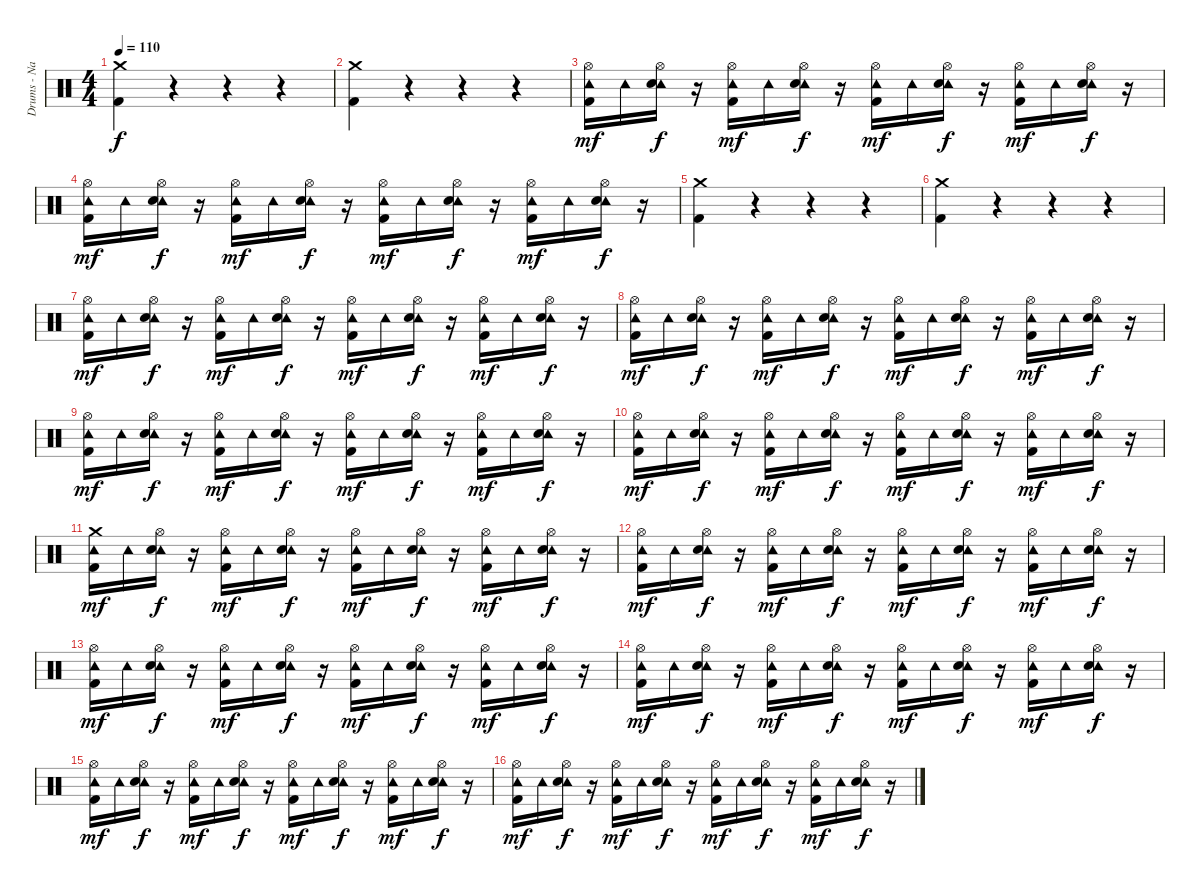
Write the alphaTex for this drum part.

\track ("Drums - Nathan" "Drums - Na") {instrument percussion}
\staff {score}
\articulation defaults
\ts (4 4)
\tempo 110
\clef neutral
\ks c
("Crash medium (hit)" "Kick (hit) 2").4{dy f} r.4 r.4 r.4 |
("Crash medium (hit)" "Kick (hit) 2").4 r.4 r.4 r.4 |
("Hi-Hat (open)" "Tambourine (hit)" "Kick (hit) 2").16{dy mf} "Tambourine (hit)".16 ("Hi-Hat (open)" "Tambourine (hit)" "Electric Snare (hit)").16{dy f} r.16 ("Hi-Hat (open)" "Tambourine (hit)" "Kick (hit) 2").16{dy mf} "Tambourine (hit)".16 ("Hi-Hat (open)" "Tambourine (hit)" "Electric Snare (hit)").16{dy f} r.16 ("Hi-Hat (open)" "Tambourine (hit)" "Kick (hit) 2").16{dy mf} "Tambourine (hit)".16 ("Hi-Hat (open)" "Tambourine (hit)" "Electric Snare (hit)").16{dy f} r.16 ("Hi-Hat (open)" "Tambourine (hit)" "Kick (hit) 2").16{dy mf} "Tambourine (hit)".16 ("Hi-Hat (open)" "Tambourine (hit)" "Electric Snare (hit)").16{dy f} r.16 |
("Hi-Hat (open)" "Tambourine (hit)" "Kick (hit) 2").16{dy mf} "Tambourine (hit)".16 ("Hi-Hat (open)" "Tambourine (hit)" "Electric Snare (hit)").16{dy f} r.16 ("Hi-Hat (open)" "Tambourine (hit)" "Kick (hit) 2").16{dy mf} "Tambourine (hit)".16 ("Hi-Hat (open)" "Tambourine (hit)" "Electric Snare (hit)").16{dy f} r.16 ("Hi-Hat (open)" "Tambourine (hit)" "Kick (hit) 2").16{dy mf} "Tambourine (hit)".16 ("Hi-Hat (open)" "Tambourine (hit)" "Electric Snare (hit)").16{dy f} r.16 ("Hi-Hat (open)" "Tambourine (hit)" "Kick (hit) 2").16{dy mf} "Tambourine (hit)".16 ("Hi-Hat (open)" "Tambourine (hit)" "Electric Snare (hit)").16{dy f} r.16 |
("Crash medium (hit)" "Kick (hit) 2").4 r.4 r.4 r.4 |
("Crash medium (hit)" "Kick (hit) 2").4 r.4 r.4 r.4 |
("Hi-Hat (open)" "Tambourine (hit)" "Kick (hit) 2").16{dy mf} "Tambourine (hit)".16 ("Hi-Hat (open)" "Tambourine (hit)" "Electric Snare (hit)").16{dy f} r.16 ("Hi-Hat (open)" "Tambourine (hit)" "Kick (hit) 2").16{dy mf} "Tambourine (hit)".16 ("Hi-Hat (open)" "Tambourine (hit)" "Electric Snare (hit)").16{dy f} r.16 ("Hi-Hat (open)" "Tambourine (hit)" "Kick (hit) 2").16{dy mf} "Tambourine (hit)".16 ("Hi-Hat (open)" "Tambourine (hit)" "Electric Snare (hit)").16{dy f} r.16 ("Hi-Hat (open)" "Tambourine (hit)" "Kick (hit) 2").16{dy mf} "Tambourine (hit)".16 ("Hi-Hat (open)" "Tambourine (hit)" "Electric Snare (hit)").16{dy f} r.16 |
("Hi-Hat (open)" "Tambourine (hit)" "Kick (hit) 2").16{dy mf} "Tambourine (hit)".16 ("Hi-Hat (open)" "Tambourine (hit)" "Electric Snare (hit)").16{dy f} r.16 ("Hi-Hat (open)" "Tambourine (hit)" "Kick (hit) 2").16{dy mf} "Tambourine (hit)".16 ("Hi-Hat (open)" "Tambourine (hit)" "Electric Snare (hit)").16{dy f} r.16 ("Hi-Hat (open)" "Tambourine (hit)" "Kick (hit) 2").16{dy mf} "Tambourine (hit)".16 ("Hi-Hat (open)" "Tambourine (hit)" "Electric Snare (hit)").16{dy f} r.16 ("Hi-Hat (open)" "Tambourine (hit)" "Kick (hit) 2").16{dy mf} "Tambourine (hit)".16 ("Hi-Hat (open)" "Tambourine (hit)" "Electric Snare (hit)").16{dy f} r.16 |
("Hi-Hat (open)" "Tambourine (hit)" "Kick (hit) 2").16{dy mf} "Tambourine (hit)".16 ("Hi-Hat (open)" "Tambourine (hit)" "Electric Snare (hit)").16{dy f} r.16 ("Hi-Hat (open)" "Tambourine (hit)" "Kick (hit) 2").16{dy mf} "Tambourine (hit)".16 ("Hi-Hat (open)" "Tambourine (hit)" "Electric Snare (hit)").16{dy f} r.16 ("Hi-Hat (open)" "Tambourine (hit)" "Kick (hit) 2").16{dy mf} "Tambourine (hit)".16 ("Hi-Hat (open)" "Tambourine (hit)" "Electric Snare (hit)").16{dy f} r.16 ("Hi-Hat (open)" "Tambourine (hit)" "Kick (hit) 2").16{dy mf} "Tambourine (hit)".16 ("Hi-Hat (open)" "Tambourine (hit)" "Electric Snare (hit)").16{dy f} r.16 |
("Hi-Hat (open)" "Tambourine (hit)" "Kick (hit) 2").16{dy mf} "Tambourine (hit)".16 ("Hi-Hat (open)" "Tambourine (hit)" "Electric Snare (hit)").16{dy f} r.16 ("Hi-Hat (open)" "Tambourine (hit)" "Kick (hit) 2").16{dy mf} "Tambourine (hit)".16 ("Hi-Hat (open)" "Tambourine (hit)" "Electric Snare (hit)").16{dy f} r.16 ("Hi-Hat (open)" "Tambourine (hit)" "Kick (hit) 2").16{dy mf} "Tambourine (hit)".16 ("Hi-Hat (open)" "Tambourine (hit)" "Electric Snare (hit)").16{dy f} r.16 ("Hi-Hat (open)" "Tambourine (hit)" "Kick (hit) 2").16{dy mf} "Tambourine (hit)".16 ("Hi-Hat (open)" "Tambourine (hit)" "Electric Snare (hit)").16{dy f} r.16 |
("Crash medium (hit)" "Tambourine (hit)" "Kick (hit) 2").16{dy mf} "Tambourine (hit)".16 ("Hi-Hat (open)" "Tambourine (hit)" "Electric Snare (hit)").16{dy f} r.16 ("Hi-Hat (open)" "Tambourine (hit)" "Kick (hit) 2").16{dy mf} "Tambourine (hit)".16 ("Hi-Hat (open)" "Tambourine (hit)" "Electric Snare (hit)").16{dy f} r.16 ("Hi-Hat (open)" "Tambourine (hit)" "Kick (hit) 2").16{dy mf} "Tambourine (hit)".16 ("Hi-Hat (open)" "Tambourine (hit)" "Electric Snare (hit)").16{dy f} r.16 ("Hi-Hat (open)" "Tambourine (hit)" "Kick (hit) 2").16{dy mf} "Tambourine (hit)".16 ("Hi-Hat (open)" "Tambourine (hit)" "Electric Snare (hit)").16{dy f} r.16 |
("Hi-Hat (open)" "Tambourine (hit)" "Kick (hit) 2").16{dy mf} "Tambourine (hit)".16 ("Hi-Hat (open)" "Tambourine (hit)" "Electric Snare (hit)").16{dy f} r.16 ("Hi-Hat (open)" "Tambourine (hit)" "Kick (hit) 2").16{dy mf} "Tambourine (hit)".16 ("Hi-Hat (open)" "Tambourine (hit)" "Electric Snare (hit)").16{dy f} r.16 ("Hi-Hat (open)" "Tambourine (hit)" "Kick (hit) 2").16{dy mf} "Tambourine (hit)".16 ("Hi-Hat (open)" "Tambourine (hit)" "Electric Snare (hit)").16{dy f} r.16 ("Hi-Hat (open)" "Tambourine (hit)" "Kick (hit) 2").16{dy mf} "Tambourine (hit)".16 ("Hi-Hat (open)" "Tambourine (hit)" "Electric Snare (hit)").16{dy f} r.16 |
("Hi-Hat (open)" "Tambourine (hit)" "Kick (hit) 2").16{dy mf} "Tambourine (hit)".16 ("Hi-Hat (open)" "Tambourine (hit)" "Electric Snare (hit)").16{dy f} r.16 ("Hi-Hat (open)" "Tambourine (hit)" "Kick (hit) 2").16{dy mf} "Tambourine (hit)".16 ("Hi-Hat (open)" "Tambourine (hit)" "Electric Snare (hit)").16{dy f} r.16 ("Hi-Hat (open)" "Tambourine (hit)" "Kick (hit) 2").16{dy mf} "Tambourine (hit)".16 ("Hi-Hat (open)" "Tambourine (hit)" "Electric Snare (hit)").16{dy f} r.16 ("Hi-Hat (open)" "Tambourine (hit)" "Kick (hit) 2").16{dy mf} "Tambourine (hit)".16 ("Hi-Hat (open)" "Tambourine (hit)" "Electric Snare (hit)").16{dy f} r.16 |
("Hi-Hat (open)" "Tambourine (hit)" "Kick (hit) 2").16{dy mf} "Tambourine (hit)".16 ("Hi-Hat (open)" "Tambourine (hit)" "Electric Snare (hit)").16{dy f} r.16 ("Hi-Hat (open)" "Tambourine (hit)" "Kick (hit) 2").16{dy mf} "Tambourine (hit)".16 ("Hi-Hat (open)" "Tambourine (hit)" "Electric Snare (hit)").16{dy f} r.16 ("Hi-Hat (open)" "Tambourine (hit)" "Kick (hit) 2").16{dy mf} "Tambourine (hit)".16 ("Hi-Hat (open)" "Tambourine (hit)" "Electric Snare (hit)").16{dy f} r.16 ("Hi-Hat (open)" "Tambourine (hit)" "Kick (hit) 2").16{dy mf} "Tambourine (hit)".16 ("Hi-Hat (open)" "Tambourine (hit)" "Electric Snare (hit)").16{dy f} r.16 |
("Hi-Hat (open)" "Tambourine (hit)" "Kick (hit) 2").16{dy mf} "Tambourine (hit)".16 ("Hi-Hat (open)" "Tambourine (hit)" "Electric Snare (hit)").16{dy f} r.16 ("Hi-Hat (open)" "Tambourine (hit)" "Kick (hit) 2").16{dy mf} "Tambourine (hit)".16 ("Hi-Hat (open)" "Tambourine (hit)" "Electric Snare (hit)").16{dy f} r.16 ("Hi-Hat (open)" "Tambourine (hit)" "Kick (hit) 2").16{dy mf} "Tambourine (hit)".16 ("Hi-Hat (open)" "Tambourine (hit)" "Electric Snare (hit)").16{dy f} r.16 ("Hi-Hat (open)" "Tambourine (hit)" "Kick (hit) 2").16{dy mf} "Tambourine (hit)".16 ("Hi-Hat (open)" "Tambourine (hit)" "Electric Snare (hit)").16{dy f} r.16 |
("Hi-Hat (open)" "Tambourine (hit)" "Kick (hit) 2").16{dy mf} "Tambourine (hit)".16 ("Hi-Hat (open)" "Tambourine (hit)" "Electric Snare (hit)").16{dy f} r.16 ("Hi-Hat (open)" "Tambourine (hit)" "Kick (hit) 2").16{dy mf} "Tambourine (hit)".16 ("Hi-Hat (open)" "Tambourine (hit)" "Electric Snare (hit)").16{dy f} r.16 ("Hi-Hat (open)" "Tambourine (hit)" "Kick (hit) 2").16{dy mf} "Tambourine (hit)".16 ("Hi-Hat (open)" "Tambourine (hit)" "Electric Snare (hit)").16{dy f} r.16 ("Hi-Hat (open)" "Tambourine (hit)" "Kick (hit) 2").16{dy mf} "Tambourine (hit)".16 ("Hi-Hat (open)" "Tambourine (hit)" "Electric Snare (hit)").16{dy f} r.16
